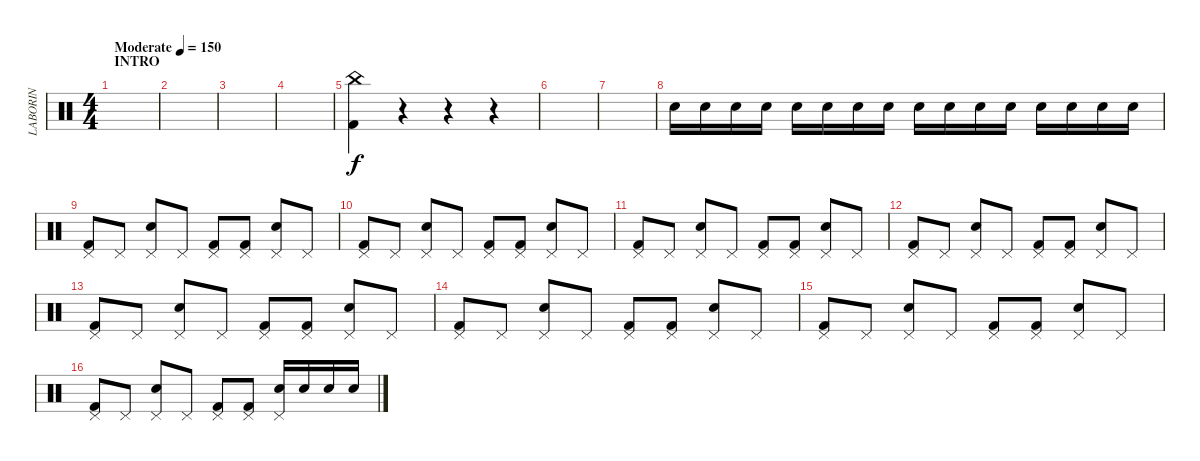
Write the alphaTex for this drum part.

\track ("LABORIN" "LABORIN") {instrument percussion}
\staff {score}
\articulation defaults
\ts (4 4)
\section ("" "INTRO")
\tempo (150 "Moderate")
\clef neutral
\ks c
|
|
|
|
("China (hit)" "Kick (hit) 2").4 r.4 r.4 r.4 |
|
|
"Snare (hit) 2".16 "Snare (hit) 2".16 "Snare (hit) 2".16 "Snare (hit) 2".16 "Snare (hit) 2".16 "Snare (hit) 2".16 "Snare (hit) 2".16 "Snare (hit) 2".16 "Snare (hit) 2".16 "Snare (hit) 2".16 "Snare (hit) 2".16 "Snare (hit) 2".16 "Snare (hit) 2".16 "Snare (hit) 2".16 "Snare (hit) 2".16 "Snare (hit) 2".16 |
("Kick (hit) 2" "Pedal Hi-Hat (hit)").8 "Pedal Hi-Hat (hit)".8 ("Snare (hit) 2" "Pedal Hi-Hat (hit)").8 "Pedal Hi-Hat (hit)".8 ("Kick (hit) 2" "Pedal Hi-Hat (hit)").8 ("Kick (hit) 2" "Pedal Hi-Hat (hit)").8 ("Snare (hit) 2" "Pedal Hi-Hat (hit)").8 "Pedal Hi-Hat (hit)".8 |
("Kick (hit) 2" "Pedal Hi-Hat (hit)").8 "Pedal Hi-Hat (hit)".8 ("Snare (hit) 2" "Pedal Hi-Hat (hit)").8 "Pedal Hi-Hat (hit)".8 ("Kick (hit) 2" "Pedal Hi-Hat (hit)").8 ("Kick (hit) 2" "Pedal Hi-Hat (hit)").8 ("Snare (hit) 2" "Pedal Hi-Hat (hit)").8 "Pedal Hi-Hat (hit)".8 |
("Kick (hit) 2" "Pedal Hi-Hat (hit)").8 "Pedal Hi-Hat (hit)".8 ("Snare (hit) 2" "Pedal Hi-Hat (hit)").8 "Pedal Hi-Hat (hit)".8 ("Kick (hit) 2" "Pedal Hi-Hat (hit)").8 ("Kick (hit) 2" "Pedal Hi-Hat (hit)").8 ("Snare (hit) 2" "Pedal Hi-Hat (hit)").8 "Pedal Hi-Hat (hit)".8 |
("Kick (hit) 2" "Pedal Hi-Hat (hit)").8 "Pedal Hi-Hat (hit)".8 ("Snare (hit) 2" "Pedal Hi-Hat (hit)").8 "Pedal Hi-Hat (hit)".8 ("Kick (hit) 2" "Pedal Hi-Hat (hit)").8 ("Kick (hit) 2" "Pedal Hi-Hat (hit)").8 ("Snare (hit) 2" "Pedal Hi-Hat (hit)").8 "Pedal Hi-Hat (hit)".8 |
("Kick (hit) 2" "Pedal Hi-Hat (hit)").8 "Pedal Hi-Hat (hit)".8 ("Snare (hit) 2" "Pedal Hi-Hat (hit)").8 "Pedal Hi-Hat (hit)".8 ("Kick (hit) 2" "Pedal Hi-Hat (hit)").8 ("Kick (hit) 2" "Pedal Hi-Hat (hit)").8 ("Snare (hit) 2" "Pedal Hi-Hat (hit)").8 "Pedal Hi-Hat (hit)".8 |
("Kick (hit) 2" "Pedal Hi-Hat (hit)").8 "Pedal Hi-Hat (hit)".8 ("Snare (hit) 2" "Pedal Hi-Hat (hit)").8 "Pedal Hi-Hat (hit)".8 ("Kick (hit) 2" "Pedal Hi-Hat (hit)").8 ("Kick (hit) 2" "Pedal Hi-Hat (hit)").8 ("Snare (hit) 2" "Pedal Hi-Hat (hit)").8 "Pedal Hi-Hat (hit)".8 |
("Kick (hit) 2" "Pedal Hi-Hat (hit)").8 "Pedal Hi-Hat (hit)".8 ("Snare (hit) 2" "Pedal Hi-Hat (hit)").8 "Pedal Hi-Hat (hit)".8 ("Kick (hit) 2" "Pedal Hi-Hat (hit)").8 ("Kick (hit) 2" "Pedal Hi-Hat (hit)").8 ("Snare (hit) 2" "Pedal Hi-Hat (hit)").8 "Pedal Hi-Hat (hit)".8 |
("Kick (hit) 2" "Pedal Hi-Hat (hit)").8 "Pedal Hi-Hat (hit)".8 ("Snare (hit) 2" "Pedal Hi-Hat (hit)").8 "Pedal Hi-Hat (hit)".8 ("Kick (hit) 2" "Pedal Hi-Hat (hit)").8 ("Kick (hit) 2" "Pedal Hi-Hat (hit)").8 ("Snare (hit) 2" "Pedal Hi-Hat (hit)").16 "Snare (hit) 2".16 "Snare (hit) 2".16 "Snare (hit) 2".16
